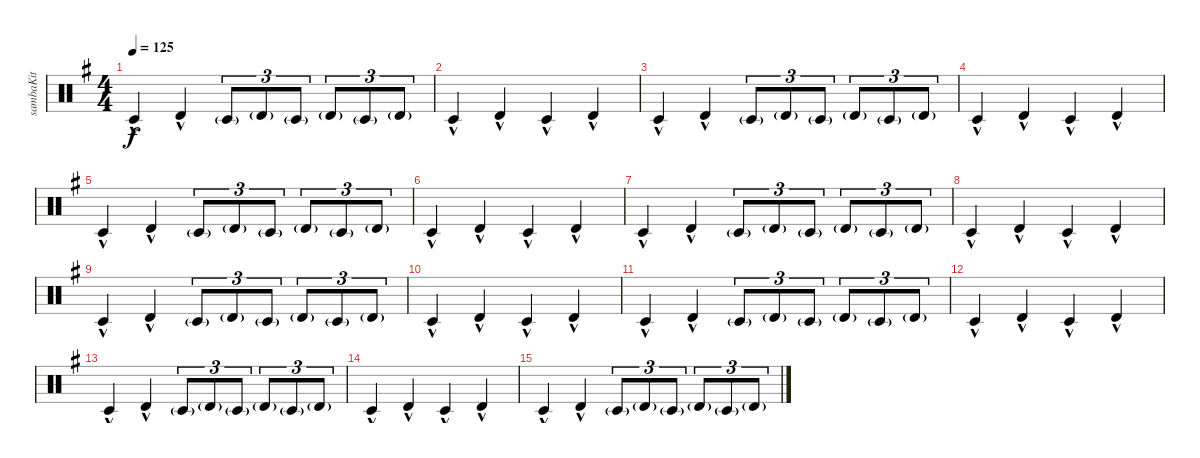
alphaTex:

\defaultSystemsLayout 4
\bracketExtendMode groupsimilarinstruments
\otherSystemsTrackNameOrientation horizontal
\track ("Kit-Samba" "sambaKit") {instrument percussion}
\staff {score}
\articulation defaults
\ts (4 4)
\tempo 125
\clef neutral
\scale
0.333333
\ks g "Timbale low (hit)"{hac acc forcenatural}.4{dy f beam Up} "Timbale high (hit)"{hac acc forcenatural}.4{beam Up} "Timbale low (hit)"{g acc forcenatural}.8{tu (3 2) beam Up} "Timbale high (hit)"{g acc forcenatural}.8{tu (3 2) beam Up} "Timbale low (hit)"{g acc forcenatural}.8{tu (3 2) beam Up} "Timbale high (hit)"{g acc forcenatural}.8{tu (3 2) beam Up} "Timbale low (hit)"{g acc forcenatural}.8{tu (3 2) beam Up} "Timbale high (hit)"{g acc forcenatural}.8{tu (3 2) beam Up}
|
\scale
0.333333 "Timbale low (hit)"{hac acc forcenatural}.4{beam Up} "Timbale high (hit)"{hac acc forcenatural}.4{beam Up} "Timbale low (hit)"{hac acc forcenatural}.4{beam Up} "Timbale high (hit)"{hac acc forcenatural}.4{beam Up} |
\scale
0.333333 "Timbale low (hit)"{hac acc forcenatural}.4{beam Up} "Timbale high (hit)"{hac acc forcenatural}.4{beam Up} "Timbale low (hit)"{g acc forcenatural}.8{tu (3 2) beam Up} "Timbale high (hit)"{g acc forcenatural}.8{tu (3 2) beam Up} "Timbale low (hit)"{g acc forcenatural}.8{tu (3 2) beam Up} "Timbale high (hit)"{g acc forcenatural}.8{tu (3 2) beam Up} "Timbale low (hit)"{g acc forcenatural}.8{tu (3 2) beam Up} "Timbale high (hit)"{g acc forcenatural}.8{tu (3 2) beam Up} |
\scale
0.333333 "Timbale low (hit)"{hac acc forcenatural}.4{beam Up} "Timbale high (hit)"{hac acc forcenatural}.4{beam Up} "Timbale low (hit)"{hac acc forcenatural}.4{beam Up} "Timbale high (hit)"{hac acc forcenatural}.4{beam Up} |
\scale
0.333333 "Timbale low (hit)"{hac acc forcenatural}.4{beam Up} "Timbale high (hit)"{hac acc forcenatural}.4{beam Up} "Timbale low (hit)"{g acc forcenatural}.8{tu (3 2) beam Up} "Timbale high (hit)"{g acc forcenatural}.8{tu (3 2) beam Up} "Timbale low (hit)"{g acc forcenatural}.8{tu (3 2) beam Up} "Timbale high (hit)"{g acc forcenatural}.8{tu (3 2) beam Up} "Timbale low (hit)"{g acc forcenatural}.8{tu (3 2) beam Up} "Timbale high (hit)"{g acc forcenatural}.8{tu (3 2) beam Up} |
\scale
0.333333 "Timbale low (hit)"{hac acc forcenatural}.4{beam Up} "Timbale high (hit)"{hac acc forcenatural}.4{beam Up} "Timbale low (hit)"{hac acc forcenatural}.4{beam Up} "Timbale high (hit)"{hac acc forcenatural}.4{beam Up} |
\scale
0.333333 "Timbale low (hit)"{hac acc forcenatural}.4{beam Up} "Timbale high (hit)"{hac acc forcenatural}.4{beam Up} "Timbale low (hit)"{g acc forcenatural}.8{tu (3 2) beam Up} "Timbale high (hit)"{g acc forcenatural}.8{tu (3 2) beam Up} "Timbale low (hit)"{g acc forcenatural}.8{tu (3 2) beam Up} "Timbale high (hit)"{g acc forcenatural}.8{tu (3 2) beam Up} "Timbale low (hit)"{g acc forcenatural}.8{tu (3 2) beam Up} "Timbale high (hit)"{g acc forcenatural}.8{tu (3 2) beam Up} |
\scale
0.333333 "Timbale low (hit)"{hac acc forcenatural}.4{beam Up} "Timbale high (hit)"{hac acc forcenatural}.4{beam Up} "Timbale low (hit)"{hac acc forcenatural}.4{beam Up} "Timbale high (hit)"{hac acc forcenatural}.4{beam Up} |
\scale
0.333333 "Timbale low (hit)"{hac acc forcenatural}.4{beam Up} "Timbale high (hit)"{hac acc forcenatural}.4{beam Up} "Timbale low (hit)"{g acc forcenatural}.8{tu (3 2) beam Up} "Timbale high (hit)"{g acc forcenatural}.8{tu (3 2) beam Up} "Timbale low (hit)"{g acc forcenatural}.8{tu (3 2) beam Up} "Timbale high (hit)"{g acc forcenatural}.8{tu (3 2) beam Up} "Timbale low (hit)"{g acc forcenatural}.8{tu (3 2) beam Up} "Timbale high (hit)"{g acc forcenatural}.8{tu (3 2) beam Up} |
\scale
0.333333 "Timbale low (hit)"{hac acc forcenatural}.4{beam Up} "Timbale high (hit)"{hac acc forcenatural}.4{beam Up} "Timbale low (hit)"{hac acc forcenatural}.4{beam Up} "Timbale high (hit)"{hac acc forcenatural}.4{beam Up} |
\scale
0.333333 "Timbale low (hit)"{hac acc forcenatural}.4{beam Up} "Timbale high (hit)"{hac acc forcenatural}.4{beam Up} "Timbale low (hit)"{g acc forcenatural}.8{tu (3 2) beam Up} "Timbale high (hit)"{g acc forcenatural}.8{tu (3 2) beam Up} "Timbale low (hit)"{g acc forcenatural}.8{tu (3 2) beam Up} "Timbale high (hit)"{g acc forcenatural}.8{tu (3 2) beam Up} "Timbale low (hit)"{g acc forcenatural}.8{tu (3 2) beam Up} "Timbale high (hit)"{g acc forcenatural}.8{tu (3 2) beam Up} |
\scale
0.333333 "Timbale low (hit)"{hac acc forcenatural}.4{beam Up} "Timbale high (hit)"{hac acc forcenatural}.4{beam Up} "Timbale low (hit)"{hac acc forcenatural}.4{beam Up} "Timbale high (hit)"{hac acc forcenatural}.4{beam Up} |
\scale
0.333333 "Timbale low (hit)"{hac acc forcenatural}.4{beam Up} "Timbale high (hit)"{hac acc forcenatural}.4{beam Up} "Timbale low (hit)"{g acc forcenatural}.8{tu (3 2) beam Up} "Timbale high (hit)"{g acc forcenatural}.8{tu (3 2) beam Up} "Timbale low (hit)"{g acc forcenatural}.8{tu (3 2) beam Up} "Timbale high (hit)"{g acc forcenatural}.8{tu (3 2) beam Up} "Timbale low (hit)"{g acc forcenatural}.8{tu (3 2) beam Up} "Timbale high (hit)"{g acc forcenatural}.8{tu (3 2) beam Up} |
\scale
0.333333 "Timbale low (hit)"{hac acc forcenatural}.4{beam Up} "Timbale high (hit)"{hac acc forcenatural}.4{beam Up} "Timbale low (hit)"{hac acc forcenatural}.4{beam Up} "Timbale high (hit)"{hac acc forcenatural}.4{beam Up} |
\scale
0.333333 "Timbale low (hit)"{hac acc forcenatural}.4{beam Up} "Timbale high (hit)"{hac acc forcenatural}.4{beam Up} "Timbale low (hit)"{g acc forcenatural}.8{tu (3 2) beam Up} "Timbale high (hit)"{g acc forcenatural}.8{tu (3 2) beam Up} "Timbale low (hit)"{g acc forcenatural}.8{tu (3 2) beam Up} "Timbale high (hit)"{g acc forcenatural}.8{tu (3 2) beam Up} "Timbale low (hit)"{g acc forcenatural}.8{tu (3 2) beam Up} "Timbale high (hit)"{g acc forcenatural}.8{tu (3 2) beam Up} |
\scale
0.333333
